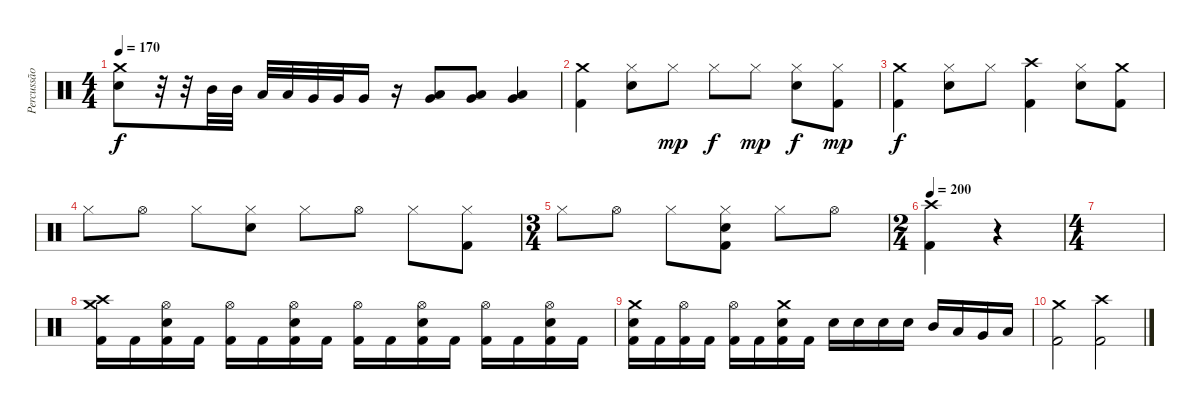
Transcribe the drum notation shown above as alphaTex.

\track ("Percussão" "Percussão") {instrument percussion}
\staff {score}
\articulation defaults
\ts (4 4)
\tempo 170
\clef neutral
\ks c
("Crash medium (hit)" "Electric Snare (hit)").8{dy f} r.32 r.32 "Mid Tom (hit)".32 "Mid Tom (hit)".32 "Low Tom (hit)".32 "Low Tom (hit)".32 "Very Low Tom (hit)".32 "Very Low Tom (hit)".32 "Very Low Tom (hit)".16 r.16 ("Very Low Tom (hit)" "Low Floor Tom (hit)").8 ("Very Low Tom (hit)" "Low Floor Tom (hit)").8 ("Very Low Tom (hit)" "Low Floor Tom (hit)").4 |
("Crash medium (hit)" "Kick (hit) 2").4 ("Hi-Hat (closed)" "Electric Snare (hit)").8 "Hi-Hat (closed)".8{dy mp} "Hi-Hat (closed)".8{dy f} "Hi-Hat (closed)".8{dy mp} ("Hi-Hat (closed)" "Electric Snare (hit)").8{dy f} ("Hi-Hat (closed)" "Kick (hit) 2").8{dy mp} |
("Crash medium (hit)" "Kick (hit) 2").4{dy f} ("Hi-Hat (closed)" "Electric Snare (hit)").8 "Hi-Hat (closed)".8 ("Crash high (hit)" "Kick (hit) 2").4 ("Hi-Hat (closed)" "Electric Snare (hit)").8 ("Crash medium (hit)" "Kick (hit) 2").8 |
"Hi-Hat (closed)".8 "Hi-Hat (open)".8 "Hi-Hat (closed)".8 ("Hi-Hat (closed)" "Electric Snare (hit)").8 "Hi-Hat (closed)".8 "Hi-Hat (open)".8 "Hi-Hat (closed)".8 ("Hi-Hat (closed)" "Kick (hit) 2").8 |
\ts (3 4)
"Hi-Hat (closed)".8 "Hi-Hat (open)".8 "Hi-Hat (closed)".8 ("Hi-Hat (closed)" "Electric Snare (hit)" "Kick (hit) 2").8 "Hi-Hat (closed)".8 "Hi-Hat (open)".8 |
\ts (2 4)
\tempo 200
("Crash high (hit)" "Kick (hit) 2").4 r.4 |
\ts (4 4)
|
("Crash high (hit)" "Crash medium (hit)" "Kick (hit) 2").16 "Kick (hit) 2".16 ("Hi-Hat (open)" "Electric Snare (hit)" "Kick (hit) 2").16 "Kick (hit) 2".16 ("Hi-Hat (open)" "Kick (hit) 2").16 "Kick (hit) 2".16 ("Hi-Hat (open)" "Electric Snare (hit)" "Kick (hit) 2").16 "Kick (hit) 2".16 ("Hi-Hat (open)" "Kick (hit) 2").16 "Kick (hit) 2".16 ("Hi-Hat (open)" "Electric Snare (hit)" "Kick (hit) 2").16 "Kick (hit) 2".16 ("Hi-Hat (open)" "Kick (hit) 2").16 "Kick (hit) 2".16 ("Hi-Hat (open)" "Electric Snare (hit)" "Kick (hit) 2").16 "Kick (hit) 2".16 |
("Crash medium (hit)" "Electric Snare (hit)" "Kick (hit) 2").16 "Kick (hit) 2".16 ("Hi-Hat (open)" "Kick (hit) 2").16 "Kick (hit) 2".16 ("Hi-Hat (open)" "Kick (hit) 2").16 "Kick (hit) 2".16 ("Crash medium (hit)" "Electric Snare (hit)" "Kick (hit) 2").16 "Kick (hit) 2".16 "Electric Snare (hit)".16 "Electric Snare (hit)".16 "Electric Snare (hit)".16 "Electric Snare (hit)".16 "Mid Tom (hit)".16 "Low Tom (hit)".16 "Very Low Tom (hit)".16 "Low Floor Tom (hit)".16 |
("Crash medium (hit)" "Kick (hit) 2").2 ("Crash high (hit)" "Kick (hit) 2").2
